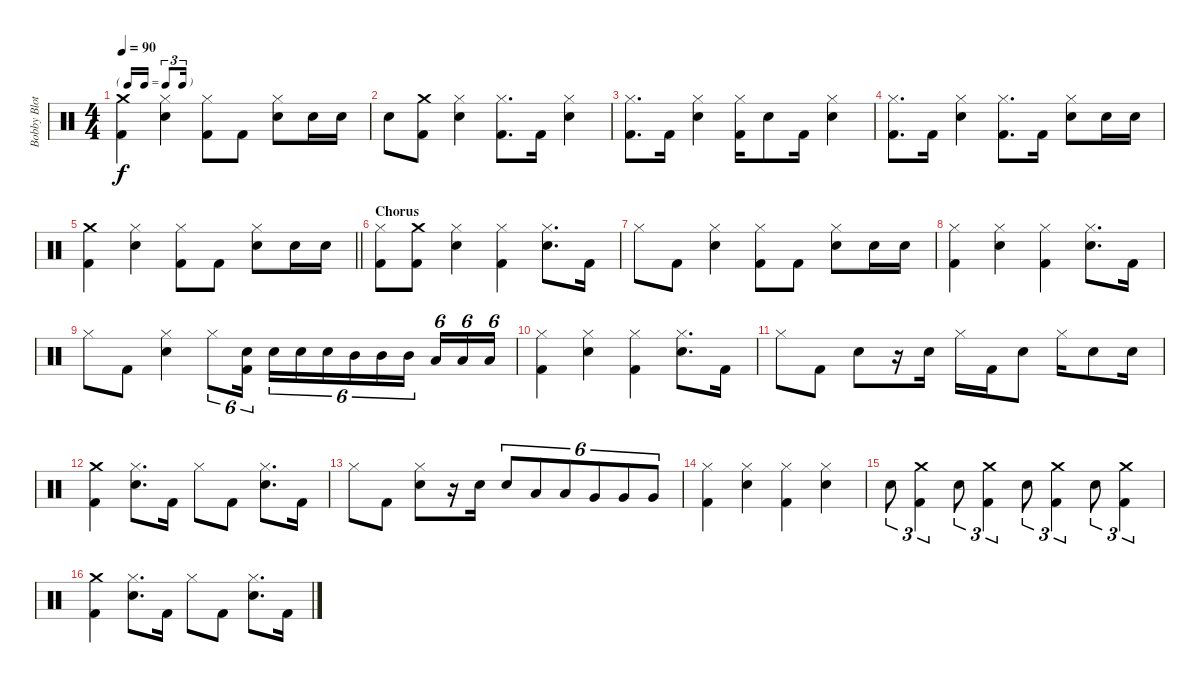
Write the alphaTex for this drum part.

\track ("Bobby Blotzer - Drums" "Bobby Blot") {instrument percussion}
\staff {score}
\articulation defaults
\ts (4 4)
\tf triplet16th
\tempo 90
\clef neutral
\ks c
("Crash medium (hit)" "Kick (hit) 2").4{dy f} ("Hi-Hat (closed)" "Snare (hit) 2").4 ("Hi-Hat (closed)" "Kick (hit) 2").8 "Kick (hit) 2".8 ("Hi-Hat (closed)" "Snare (hit) 2").8 "Snare (hit) 2".16 "Snare (hit) 2".16 |
"Snare (hit) 2".8 ("Crash medium (hit)" "Kick (hit) 2").8 ("Hi-Hat (closed)" "Snare (hit) 2").4 ("Hi-Hat (closed)" "Kick (hit) 2").8{d} "Kick (hit) 2".16 ("Hi-Hat (closed)" "Snare (hit) 2").4 |
("Hi-Hat (closed)" "Kick (hit) 2").8{d} "Kick (hit) 2".16 ("Hi-Hat (closed)" "Snare (hit) 2").4 ("Hi-Hat (closed)" "Kick (hit) 2").16 "Snare (hit) 2".8 "Kick (hit) 2".16 ("Hi-Hat (closed)" "Snare (hit) 2").4 |
("Hi-Hat (closed)" "Kick (hit) 2").8{d} "Kick (hit) 2".16 ("Hi-Hat (closed)" "Snare (hit) 2").4 ("Hi-Hat (closed)" "Kick (hit) 2").8{d} "Kick (hit) 2".16 ("Hi-Hat (closed)" "Snare (hit) 2").8 "Snare (hit) 2".16 "Snare (hit) 2".16 |
\barLineRight lightlight
("Crash medium (hit)" "Kick (hit) 2").4 ("Hi-Hat (closed)" "Snare (hit) 2").4 ("Hi-Hat (closed)" "Kick (hit) 2").8 "Kick (hit) 2".8 ("Hi-Hat (closed)" "Snare (hit) 2").8 "Snare (hit) 2".16 "Snare (hit) 2".16 |
\section ("" "Chorus")
("Hi-Hat (closed)" "Kick (hit) 2").8 ("Crash medium (hit)" "Kick (hit) 2").8 ("Hi-Hat (closed)" "Snare (hit) 2").4 ("Hi-Hat (closed)" "Kick (hit) 2").4 ("Hi-Hat (closed)" "Snare (hit) 2").8{d} "Kick (hit) 2".16 |
"Hi-Hat (closed)".8 "Kick (hit) 2".8 ("Hi-Hat (closed)" "Snare (hit) 2").4 ("Hi-Hat (closed)" "Kick (hit) 2").8 "Kick (hit) 2".8 ("Hi-Hat (closed)" "Snare (hit) 2").8 "Snare (hit) 2".16 "Snare (hit) 2".16 |
("Hi-Hat (closed)" "Kick (hit) 2").4 ("Hi-Hat (closed)" "Snare (hit) 2").4 ("Hi-Hat (closed)" "Kick (hit) 2").4 ("Hi-Hat (closed)" "Snare (hit) 2").8{d} "Kick (hit) 2".16 |
"Hi-Hat (closed)".8 "Kick (hit) 2".8 ("Hi-Hat (closed)" "Snare (hit) 2").4 "Hi-Hat (closed)".8{tu (6 4)} ("Snare (hit) 2" "Kick (hit) 2").16{tu (6 4) beam splitsecondary} "Snare (hit) 2".16{tu (6 4)} "Snare (hit) 2".16{tu (6 4)} "Snare (hit) 2".16{tu (6 4)} "Mid Tom (hit)".16{tu (6 4)} "Mid Tom (hit)".16{tu (6 4)} "Mid Tom (hit)".16{tu (6 4) beam splitsecondary} "Low Tom (hit)".16{tu (6 4)} "Low Tom (hit)".16{tu (6 4)} "Low Tom (hit)".16{tu (6 4)} |
("Hi-Hat (closed)" "Kick (hit) 2").4 ("Hi-Hat (closed)" "Snare (hit) 2").4 ("Hi-Hat (closed)" "Kick (hit) 2").4 ("Hi-Hat (closed)" "Snare (hit) 2").8{d} "Kick (hit) 2".16 |
"Hi-Hat (closed)".8 "Kick (hit) 2".8 "Snare (hit) 2".8 r.16 "Snare (hit) 2".16 "Hi-Hat (closed)".16 "Kick (hit) 2".16 "Snare (hit) 2".8 "Hi-Hat (closed)".16 "Snare (hit) 2".8 "Snare (hit) 2".16 |
("Crash medium (hit)" "Kick (hit) 2").4 ("Hi-Hat (closed)" "Snare (hit) 2").8{d} "Kick (hit) 2".16 "Hi-Hat (closed)".8 "Kick (hit) 2".8 ("Hi-Hat (closed)" "Snare (hit) 2").8{d} "Kick (hit) 2".16 |
"Hi-Hat (closed)".8 "Kick (hit) 2".8 ("Hi-Hat (closed)" "Snare (hit) 2").8 r.16 "Snare (hit) 2".16 "Snare (hit) 2".8{tu (6 4)} "Low Tom (hit)".8{tu (6 4)} "Low Tom (hit)".8{tu (6 4)} "Very Low Tom (hit)".8{tu (6 4)} "Very Low Tom (hit)".8{tu (6 4)} "Very Low Tom (hit)".8{tu (6 4)} |
("Hi-Hat (closed)" "Kick (hit) 2").4 ("Hi-Hat (closed)" "Snare (hit) 2").4 ("Hi-Hat (closed)" "Kick (hit) 2").4 ("Hi-Hat (closed)" "Snare (hit) 2").4 |
"Snare (hit) 2".8{tu (3 2)} ("Crash medium (hit)" "Kick (hit) 2").4{tu (3 2)} "Snare (hit) 2".8{tu (3 2)} ("Crash medium (hit)" "Kick (hit) 2").4{tu (3 2)} "Snare (hit) 2".8{tu (3 2)} ("Crash medium (hit)" "Kick (hit) 2").4{tu (3 2)} "Snare (hit) 2".8{tu (3 2)} ("Crash medium (hit)" "Kick (hit) 2").4{tu (3 2)} |
("Crash medium (hit)" "Kick (hit) 2").4 ("Hi-Hat (closed)" "Snare (hit) 2").8{d} "Kick (hit) 2".16 "Hi-Hat (closed)".8 "Kick (hit) 2".8 ("Hi-Hat (closed)" "Snare (hit) 2").8{d} "Kick (hit) 2".16
